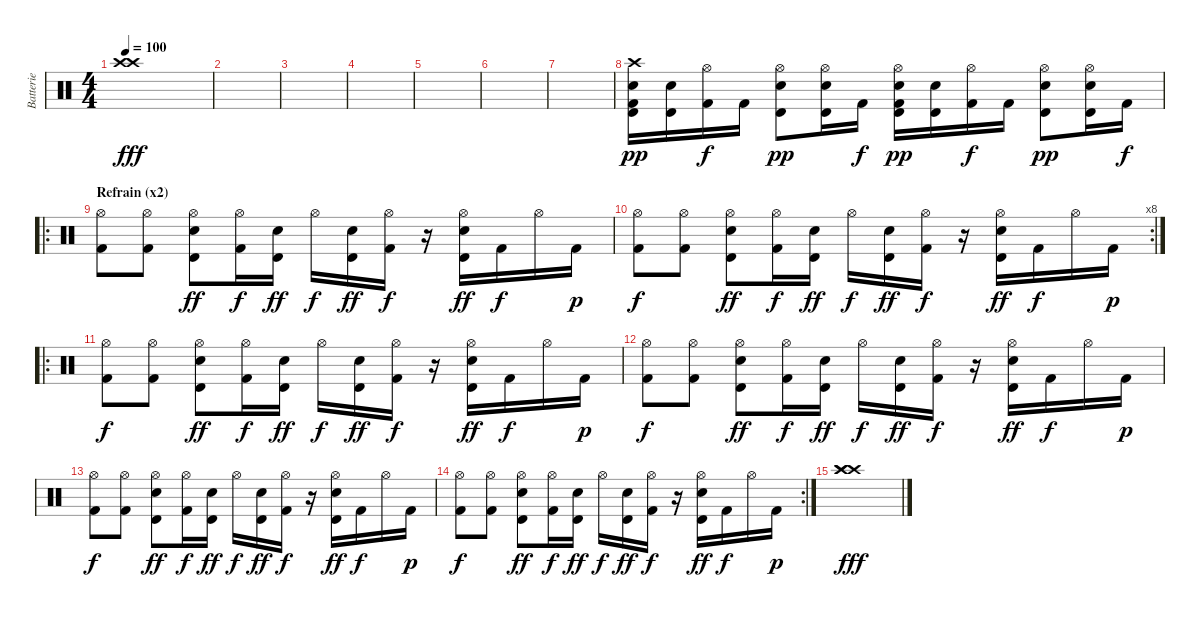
\track ("Batterie" "Batterie") {instrument percussion}
\staff {score}
\articulation defaults
\ts (4 4)
\tempo 100
\clef neutral
\ks c
("Crash high (hit)" "Crash high (hit)").1{dy fff} |
|
|
|
|
|
|
("Crash high (hit)" "Timbale high (hit)" "Electric Snare (hit)" "Kick (hit) 2").16{dy pp} ("Timbale high (hit)" "Electric Snare (hit)").16 ("Hi-Hat (open)" "Kick (hit) 2").16{dy f} "Kick (hit) 2".16 ("Hi-Hat (open)" "Timbale high (hit)" "Electric Snare (hit)").8{dy pp} ("Hi-Hat (open)" "Timbale high (hit)" "Electric Snare (hit)").16 "Kick (hit) 2".16{dy f} ("Hi-Hat (open)" "Timbale high (hit)" "Electric Snare (hit)" "Kick (hit) 2").16{dy pp} ("Timbale high (hit)" "Electric Snare (hit)").16 ("Hi-Hat (open)" "Kick (hit) 2").16{dy f} "Kick (hit) 2".16 ("Hi-Hat (open)" "Timbale high (hit)" "Electric Snare (hit)").8{dy pp} ("Hi-Hat (open)" "Timbale high (hit)" "Electric Snare (hit)").16 "Kick (hit) 2".16{dy f} |
\ro
\section ("" "Refrain (x2)")
("Hi-Hat (open)" "Kick (hit) 2").8 ("Hi-Hat (open)" "Kick (hit) 2").8 ("Hi-Hat (open)" "Timbale high (hit)" "Electric Snare (hit)").8{dy ff} ("Hi-Hat (open)" "Kick (hit) 2").16{dy f} ("Timbale high (hit)" "Electric Snare (hit)").16{dy ff} "Hi-Hat (open)".16{dy f} ("Timbale high (hit)" "Electric Snare (hit)").16{dy ff} ("Hi-Hat (open)" "Kick (hit) 2").16{dy f} r.16 ("Hi-Hat (open)" "Timbale high (hit)" "Electric Snare (hit)").16{dy ff} "Kick (hit) 2".16{dy f} "Hi-Hat (open)".16 "Kick (hit) 2".16{dy p} |
\rc 8
("Hi-Hat (open)" "Kick (hit) 2").8{dy f} ("Hi-Hat (open)" "Kick (hit) 2").8 ("Hi-Hat (open)" "Timbale high (hit)" "Electric Snare (hit)").8{dy ff} ("Hi-Hat (open)" "Kick (hit) 2").16{dy f} ("Timbale high (hit)" "Electric Snare (hit)").16{dy ff} "Hi-Hat (open)".16{dy f} ("Timbale high (hit)" "Electric Snare (hit)").16{dy ff} ("Hi-Hat (open)" "Kick (hit) 2").16{dy f} r.16 ("Hi-Hat (open)" "Timbale high (hit)" "Electric Snare (hit)").16{dy ff} "Kick (hit) 2".16{dy f} "Hi-Hat (open)".16 "Kick (hit) 2".16{dy p} |
\ro
("Hi-Hat (open)" "Kick (hit) 2").8{dy f} ("Hi-Hat (open)" "Kick (hit) 2").8 ("Hi-Hat (open)" "Timbale high (hit)" "Electric Snare (hit)").8{dy ff} ("Hi-Hat (open)" "Kick (hit) 2").16{dy f} ("Timbale high (hit)" "Electric Snare (hit)").16{dy ff} "Hi-Hat (open)".16{dy f} ("Timbale high (hit)" "Electric Snare (hit)").16{dy ff} ("Hi-Hat (open)" "Kick (hit) 2").16{dy f} r.16 ("Hi-Hat (open)" "Timbale high (hit)" "Electric Snare (hit)").16{dy ff} "Kick (hit) 2".16{dy f} "Hi-Hat (open)".16 "Kick (hit) 2".16{dy p} |
("Hi-Hat (open)" "Kick (hit) 2").8{dy f} ("Hi-Hat (open)" "Kick (hit) 2").8 ("Hi-Hat (open)" "Timbale high (hit)" "Electric Snare (hit)").8{dy ff} ("Hi-Hat (open)" "Kick (hit) 2").16{dy f} ("Timbale high (hit)" "Electric Snare (hit)").16{dy ff} "Hi-Hat (open)".16{dy f} ("Timbale high (hit)" "Electric Snare (hit)").16{dy ff} ("Hi-Hat (open)" "Kick (hit) 2").16{dy f} r.16 ("Hi-Hat (open)" "Timbale high (hit)" "Electric Snare (hit)").16{dy ff} "Kick (hit) 2".16{dy f} "Hi-Hat (open)".16 "Kick (hit) 2".16{dy p} |
("Hi-Hat (open)" "Kick (hit) 2").8{dy f} ("Hi-Hat (open)" "Kick (hit) 2").8 ("Hi-Hat (open)" "Timbale high (hit)" "Electric Snare (hit)").8{dy ff} ("Hi-Hat (open)" "Kick (hit) 2").16{dy f} ("Timbale high (hit)" "Electric Snare (hit)").16{dy ff} "Hi-Hat (open)".16{dy f} ("Timbale high (hit)" "Electric Snare (hit)").16{dy ff} ("Hi-Hat (open)" "Kick (hit) 2").16{dy f} r.16 ("Hi-Hat (open)" "Timbale high (hit)" "Electric Snare (hit)").16{dy ff} "Kick (hit) 2".16{dy f} "Hi-Hat (open)".16 "Kick (hit) 2".16{dy p} |
\rc 2
("Hi-Hat (open)" "Kick (hit) 2").8{dy f} ("Hi-Hat (open)" "Kick (hit) 2").8 ("Hi-Hat (open)" "Timbale high (hit)" "Electric Snare (hit)").8{dy ff} ("Hi-Hat (open)" "Kick (hit) 2").16{dy f} ("Timbale high (hit)" "Electric Snare (hit)").16{dy ff} "Hi-Hat (open)".16{dy f} ("Timbale high (hit)" "Electric Snare (hit)").16{dy ff} ("Hi-Hat (open)" "Kick (hit) 2").16{dy f} r.16 ("Hi-Hat (open)" "Timbale high (hit)" "Electric Snare (hit)").16{dy ff} "Kick (hit) 2".16{dy f} "Hi-Hat (open)".16 "Kick (hit) 2".16{dy p} |
("Crash high (hit)" "Crash high (hit)" "Crash high (hit)").1{dy fff}
